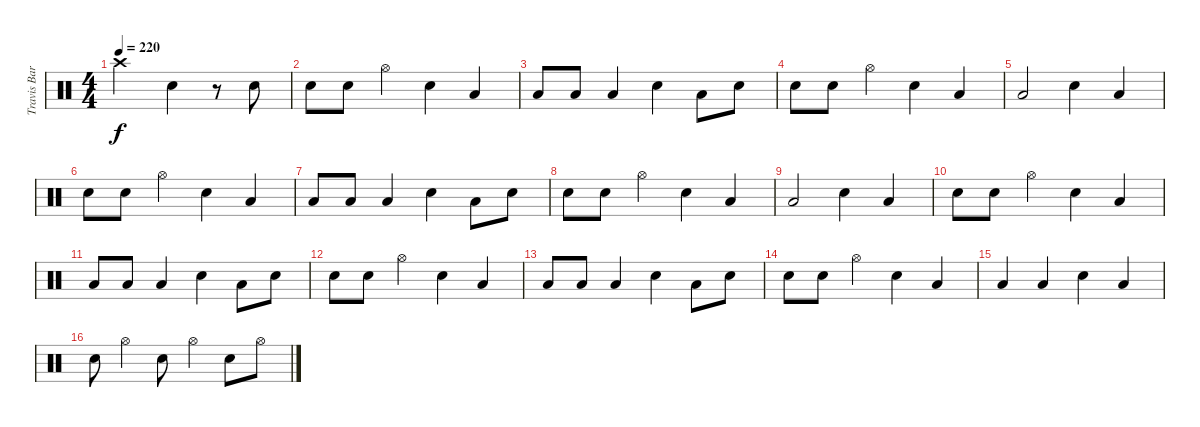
\track ("Travis Barker" "Travis Bar") {instrument percussion}
\staff {score}
\articulation defaults
\ts (4 4)
\tempo 220
\clef neutral
\ks c "Crash high (hit)".2{dy f} "Snare (hit) 2".4
r.8 "Snare (hit) 2".8 |
"Snare (hit) 2".8 "Snare (hit) 2".8 "Hi-Hat (open)".4 "Snare (hit) 2".4 "Low Floor Tom (hit)".4 |
"Low Floor Tom (hit)".8 "Low Floor Tom (hit)".8 "Low Floor Tom (hit)".4 "Snare (hit) 2".4 "Low Floor Tom (hit)".8 "Snare (hit) 2".8 |
"Snare (hit) 2".8 "Snare (hit) 2".8 "Hi-Hat (open)".4 "Snare (hit) 2".4 "Low Floor Tom (hit)".4 |
"Low Floor Tom (hit)".2 "Snare (hit) 2".4 "Low Floor Tom (hit)".4 |
"Snare (hit) 2".8 "Snare (hit) 2".8 "Hi-Hat (open)".4 "Snare (hit) 2".4 "Low Floor Tom (hit)".4 |
"Low Floor Tom (hit)".8 "Low Floor Tom (hit)".8 "Low Floor Tom (hit)".4 "Snare (hit) 2".4 "Low Floor Tom (hit)".8 "Snare (hit) 2".8 |
"Snare (hit) 2".8 "Snare (hit) 2".8 "Hi-Hat (open)".4 "Snare (hit) 2".4 "Low Floor Tom (hit)".4 |
"Low Floor Tom (hit)".2 "Snare (hit) 2".4 "Low Floor Tom (hit)".4 |
"Snare (hit) 2".8 "Snare (hit) 2".8 "Hi-Hat (open)".4 "Snare (hit) 2".4 "Low Floor Tom (hit)".4 |
"Low Floor Tom (hit)".8 "Low Floor Tom (hit)".8 "Low Floor Tom (hit)".4 "Snare (hit) 2".4 "Low Floor Tom (hit)".8 "Snare (hit) 2".8 |
"Snare (hit) 2".8 "Snare (hit) 2".8 "Hi-Hat (open)".4 "Snare (hit) 2".4 "Low Floor Tom (hit)".4 |
"Low Floor Tom (hit)".8 "Low Floor Tom (hit)".8 "Low Floor Tom (hit)".4 "Snare (hit) 2".4 "Low Floor Tom (hit)".8 "Snare (hit) 2".8 |
"Snare (hit) 2".8 "Snare (hit) 2".8 "Hi-Hat (open)".4 "Snare (hit) 2".4 "Low Floor Tom (hit)".4 |
"Low Floor Tom (hit)".4 "Low Floor Tom (hit)".4 "Snare (hit) 2".4 "Low Floor Tom (hit)".4 |
"Snare (hit) 2".8 "Hi-Hat (open)".4 "Snare (hit) 2".8 "Hi-Hat (open)".4 "Snare (hit) 2".8 "Hi-Hat (open)".8
